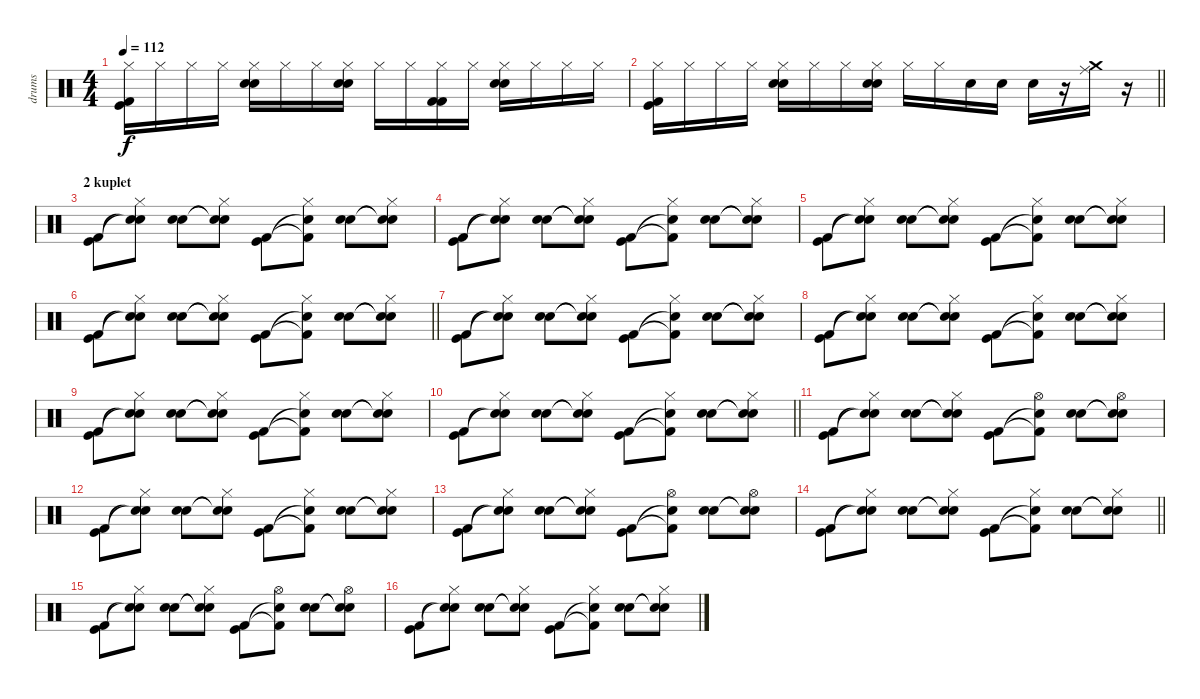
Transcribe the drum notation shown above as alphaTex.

\track ("drums" "drums") {instrument percussion}
\staff {score}
\articulation defaults
\ts (4 4)
\tempo 112
\clef neutral
\ks c
("Hi-Hat (closed)" "Kick (hit) 2" "Kick (hit)").16{dy f} "Hi-Hat (closed)".16 "Hi-Hat (closed)".16 "Hi-Hat (closed)".16 ("Hi-Hat (closed)" "Snare (hit) 2" "Electric Snare (hit)").16 "Hi-Hat (closed)".16 "Hi-Hat (closed)".16 ("Hi-Hat (closed)" "Snare (hit) 2" "Electric Snare (hit)").16 "Hi-Hat (closed)".16 "Hi-Hat (closed)".16 ("Hi-Hat (closed)" "Kick (hit) 2" "Kick (hit) 2").16 "Hi-Hat (closed)".16 ("Hi-Hat (closed)" "Snare (hit) 2" "Electric Snare (hit)").16 "Hi-Hat (closed)".16 "Hi-Hat (closed)".16 "Hi-Hat (closed)".16 |
\barLineRight lightlight
("Hi-Hat (closed)" "Kick (hit) 2" "Kick (hit)").16 "Hi-Hat (closed)".16 "Hi-Hat (closed)".16 "Hi-Hat (closed)".16 ("Hi-Hat (closed)" "Snare (hit) 2" "Electric Snare (hit)").16 "Hi-Hat (closed)".16 "Hi-Hat (closed)".16 ("Hi-Hat (closed)" "Snare (hit) 2" "Electric Snare (hit)").16 "Hi-Hat (closed)".16 "Hi-Hat (closed)".16 "Snare (hit) 2".16 "Snare (hit) 2".16 "Snare (hit) 2".16 r.16 ("Ride (middle)" "Crash medium (hit)").16 r.16 |
\section ("" "2 kuplet")
("Kick (hit)" "Kick (hit) 2").8 ("Snare (hit)"{t} "Snare (hit)"{t} "Hi-Hat (closed)").8 ("Snare (hit) 2" "Electric Snare (hit)").8 ("Snare (hit)"{t} "Snare (hit)"{t} "Hi-Hat (closed)").8 ("Kick (hit)" "Kick (hit) 2").8 ("Snare (hit)"{t} "Kick (hit) 2"{t} "Hi-Hat (closed)").8 ("Snare (hit) 2" "Electric Snare (hit)").8 ("Snare (hit)"{t} "Snare (hit)"{t} "Hi-Hat (closed)").8 |
("Kick (hit)" "Kick (hit) 2").8 ("Snare (hit)"{t} "Snare (hit)"{t} "Hi-Hat (closed)").8 ("Snare (hit) 2" "Electric Snare (hit)").8 ("Snare (hit)"{t} "Snare (hit)"{t} "Hi-Hat (closed)").8 ("Kick (hit)" "Kick (hit) 2").8 ("Snare (hit)"{t} "Kick (hit) 2"{t} "Hi-Hat (closed)").8 ("Snare (hit) 2" "Electric Snare (hit)").8 ("Snare (hit)"{t} "Snare (hit)"{t} "Hi-Hat (closed)").8 |
("Kick (hit)" "Kick (hit) 2").8 ("Snare (hit)"{t} "Snare (hit)"{t} "Hi-Hat (closed)").8 ("Snare (hit) 2" "Electric Snare (hit)").8 ("Snare (hit)"{t} "Snare (hit)"{t} "Hi-Hat (closed)").8 ("Kick (hit)" "Kick (hit) 2").8 ("Snare (hit)"{t} "Kick (hit) 2"{t} "Hi-Hat (closed)").8 ("Snare (hit) 2" "Electric Snare (hit)").8 ("Snare (hit)"{t} "Snare (hit)"{t} "Hi-Hat (closed)").8 |
\barLineRight lightlight
("Kick (hit)" "Kick (hit) 2").8 ("Snare (hit)"{t} "Snare (hit)"{t} "Hi-Hat (closed)").8 ("Snare (hit) 2" "Electric Snare (hit)").8 ("Snare (hit)"{t} "Snare (hit)"{t} "Hi-Hat (closed)").8 ("Kick (hit)" "Kick (hit) 2").8 ("Snare (hit)"{t} "Kick (hit) 2"{t} "Hi-Hat (closed)").8 ("Snare (hit) 2" "Electric Snare (hit)").8 ("Snare (hit)"{t} "Snare (hit)"{t} "Hi-Hat (closed)").8 |
("Kick (hit)" "Kick (hit) 2").8 ("Snare (hit)"{t} "Snare (hit)"{t} "Hi-Hat (closed)").8 ("Snare (hit) 2" "Electric Snare (hit)").8 ("Snare (hit)"{t} "Snare (hit)"{t} "Hi-Hat (closed)").8 ("Kick (hit)" "Kick (hit) 2").8 ("Snare (hit)"{t} "Kick (hit) 2"{t} "Hi-Hat (closed)").8 ("Snare (hit) 2" "Electric Snare (hit)").8 ("Snare (hit)"{t} "Snare (hit)"{t} "Hi-Hat (closed)").8 |
("Kick (hit)" "Kick (hit) 2").8 ("Snare (hit)"{t} "Snare (hit)"{t} "Hi-Hat (closed)").8 ("Snare (hit) 2" "Electric Snare (hit)").8 ("Snare (hit)"{t} "Snare (hit)"{t} "Hi-Hat (closed)").8 ("Kick (hit)" "Kick (hit) 2").8 ("Snare (hit)"{t} "Kick (hit) 2"{t} "Hi-Hat (closed)").8 ("Snare (hit) 2" "Electric Snare (hit)").8 ("Snare (hit)"{t} "Snare (hit)"{t} "Hi-Hat (closed)").8 |
("Kick (hit)" "Kick (hit) 2").8 ("Snare (hit)"{t} "Snare (hit)"{t} "Hi-Hat (closed)").8 ("Snare (hit) 2" "Electric Snare (hit)").8 ("Snare (hit)"{t} "Snare (hit)"{t} "Hi-Hat (closed)").8 ("Kick (hit)" "Kick (hit) 2").8 ("Snare (hit)"{t} "Kick (hit) 2"{t} "Hi-Hat (closed)").8 ("Snare (hit) 2" "Electric Snare (hit)").8 ("Snare (hit)"{t} "Snare (hit)"{t} "Hi-Hat (closed)").8 |
\barLineRight lightlight
("Kick (hit)" "Kick (hit) 2").8 ("Snare (hit)"{t} "Snare (hit)"{t} "Hi-Hat (closed)").8 ("Snare (hit) 2" "Electric Snare (hit)").8 ("Snare (hit)"{t} "Snare (hit)"{t} "Hi-Hat (closed)").8 ("Kick (hit)" "Kick (hit) 2").8 ("Snare (hit)"{t} "Kick (hit) 2"{t} "Hi-Hat (closed)").8 ("Snare (hit) 2" "Electric Snare (hit)").8 ("Snare (hit)"{t} "Snare (hit)"{t} "Hi-Hat (closed)").8 |
("Kick (hit)" "Kick (hit) 2").8 ("Snare (hit)"{t} "Snare (hit)"{t} "Hi-Hat (closed)").8 ("Electric Snare (hit)" "Snare (hit) 2").8 ("Snare (hit)"{t} "Snare (hit)"{t} "Hi-Hat (closed)").8 ("Kick (hit)" "Kick (hit) 2").8 ("Snare (hit)"{t} "Kick (hit) 2"{t} "Hi-Hat (open)").8 ("Electric Snare (hit)" "Snare (hit) 2").8 ("Snare (hit)"{t} "Snare (hit)"{t} "Hi-Hat (open)").8 |
("Kick (hit)" "Kick (hit) 2").8 ("Snare (hit)"{t} "Snare (hit)"{t} "Hi-Hat (closed)").8 ("Snare (hit) 2" "Electric Snare (hit)").8 ("Snare (hit)"{t} "Snare (hit)"{t} "Hi-Hat (closed)").8 ("Kick (hit)" "Kick (hit) 2").8 ("Snare (hit)"{t} "Kick (hit) 2"{t} "Hi-Hat (closed)").8 ("Snare (hit) 2" "Electric Snare (hit)").8 ("Snare (hit)"{t} "Snare (hit)"{t} "Hi-Hat (closed)").8 |
("Kick (hit)" "Kick (hit) 2").8 ("Snare (hit)"{t} "Snare (hit)"{t} "Hi-Hat (closed)").8 ("Electric Snare (hit)" "Snare (hit) 2").8 ("Snare (hit)"{t} "Snare (hit)"{t} "Hi-Hat (closed)").8 ("Kick (hit)" "Kick (hit) 2").8 ("Snare (hit)"{t} "Kick (hit) 2"{t} "Hi-Hat (open)").8 ("Electric Snare (hit)" "Snare (hit) 2").8 ("Snare (hit)"{t} "Snare (hit)"{t} "Hi-Hat (open)").8 |
\barLineRight lightlight
("Kick (hit)" "Kick (hit) 2").8 ("Snare (hit)"{t} "Snare (hit)"{t} "Hi-Hat (closed)").8 ("Snare (hit) 2" "Electric Snare (hit)").8 ("Snare (hit)"{t} "Snare (hit)"{t} "Hi-Hat (closed)").8 ("Kick (hit)" "Kick (hit) 2").8 ("Snare (hit)"{t} "Kick (hit) 2"{t} "Hi-Hat (closed)").8 ("Snare (hit) 2" "Electric Snare (hit)").8 ("Snare (hit)"{t} "Snare (hit)"{t} "Hi-Hat (closed)").8 |
("Kick (hit)" "Kick (hit) 2").8 ("Snare (hit)"{t} "Snare (hit)"{t} "Hi-Hat (closed)").8 ("Electric Snare (hit)" "Snare (hit) 2").8 ("Snare (hit)"{t} "Snare (hit)"{t} "Hi-Hat (closed)").8 ("Kick (hit)" "Kick (hit) 2").8 ("Snare (hit)"{t} "Kick (hit) 2"{t} "Hi-Hat (open)").8 ("Electric Snare (hit)" "Snare (hit) 2").8 ("Snare (hit)"{t} "Snare (hit)"{t} "Hi-Hat (open)").8 |
("Kick (hit)" "Kick (hit) 2").8 ("Snare (hit)"{t} "Snare (hit)"{t} "Hi-Hat (closed)").8 ("Snare (hit) 2" "Electric Snare (hit)").8 ("Snare (hit)"{t} "Snare (hit)"{t} "Hi-Hat (closed)").8 ("Kick (hit)" "Kick (hit) 2").8 ("Snare (hit)"{t} "Kick (hit) 2"{t} "Hi-Hat (closed)").8 ("Snare (hit) 2" "Electric Snare (hit)").8 ("Snare (hit)"{t} "Snare (hit)"{t} "Hi-Hat (closed)").8
